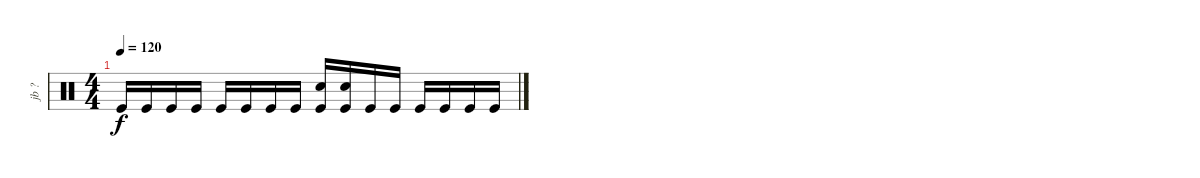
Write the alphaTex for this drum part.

\track ("jb ?" "jb ?") {instrument percussion}
\staff {score}
\articulation defaults
\ts (4 4)
\tempo 120
\clef neutral
\ks c "Kick (hit)".16{dy f} "Kick (hit)".16 "Kick (hit)".16 "Kick (hit)".16 "Kick (hit)".16 "Kick (hit)".16 "Kick (hit)".16 "Kick (hit)".16
("Electric Snare (hit)" "Kick (hit)").16 ("Snare (hit) 2" "Kick (hit)").16 "Kick (hit)".16 "Kick (hit)".16 "Kick (hit)".16 "Kick (hit)".16 "Kick (hit)".16 "Kick (hit)".16
